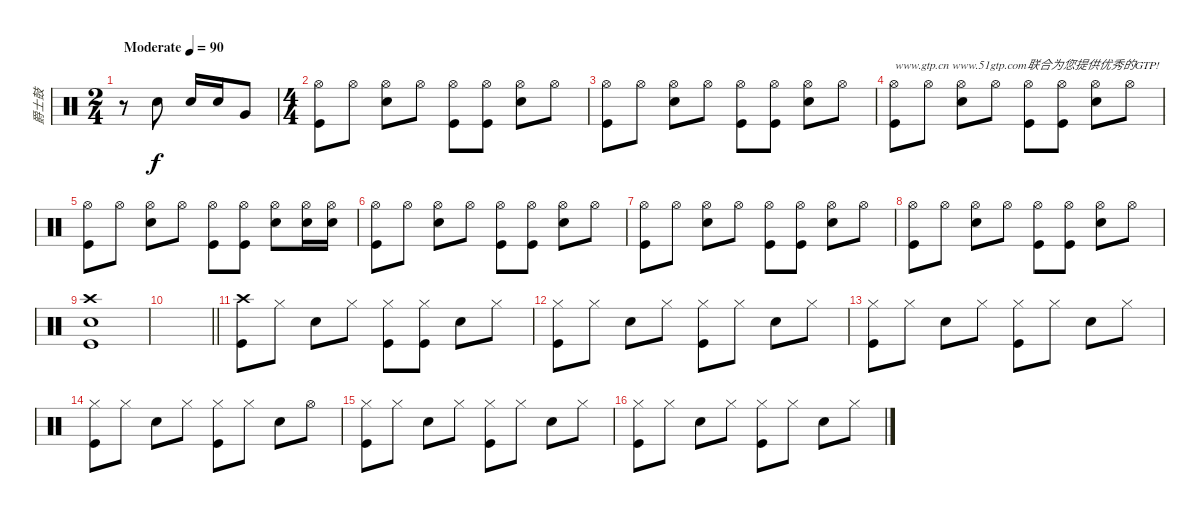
\track ("爵士鼓" "爵士鼓") {instrument percussion}
\staff {score}
\articulation defaults
\ts (2 4)
\tempo (90 "Moderate")
\clef neutral
\ks c
r.8{dy f} "Snare (hit) 2".8 "Snare (hit) 2".16 "Snare (hit) 2".16 "Very Low Tom (hit)".8 |
\ts (4 4)
("Hi-Hat (open)" "Kick (hit)").8 "Hi-Hat (open)".8 ("Hi-Hat (open)" "Snare (hit) 2").8 "Hi-Hat (open)".8 ("Hi-Hat (open)" "Kick (hit)").8 ("Hi-Hat (open)" "Kick (hit)").8 ("Hi-Hat (open)" "Snare (hit) 2").8 "Hi-Hat (open)".8 |
("Hi-Hat (open)" "Kick (hit)").8 "Hi-Hat (open)".8 ("Hi-Hat (open)" "Snare (hit) 2").8 "Hi-Hat (open)".8 ("Hi-Hat (open)" "Kick (hit)").8 ("Hi-Hat (open)" "Kick (hit)").8 ("Hi-Hat (open)" "Snare (hit) 2").8 "Hi-Hat (open)".8 |
("Hi-Hat (open)" "Kick (hit)").8{txt "www.gtp.cn www.51gtp.com联合为您提供优秀的GTP!"} "Hi-Hat (open)".8 ("Hi-Hat (open)" "Snare (hit) 2").8 "Hi-Hat (open)".8 ("Hi-Hat (open)" "Kick (hit)").8 ("Hi-Hat (open)" "Kick (hit)").8 ("Hi-Hat (open)" "Snare (hit) 2").8 "Hi-Hat (open)".8 |
("Hi-Hat (open)" "Kick (hit)").8 "Hi-Hat (open)".8 ("Hi-Hat (open)" "Snare (hit) 2").8 "Hi-Hat (open)".8 ("Hi-Hat (open)" "Kick (hit)").8 ("Hi-Hat (open)" "Kick (hit)").8 ("Hi-Hat (open)" "Snare (hit) 2").8 ("Hi-Hat (open)" "Snare (hit) 2").16 ("Hi-Hat (open)" "Snare (hit) 2").16 |
("Hi-Hat (open)" "Kick (hit)").8 "Hi-Hat (open)".8 ("Hi-Hat (open)" "Snare (hit) 2").8 "Hi-Hat (open)".8 ("Hi-Hat (open)" "Kick (hit)").8 ("Hi-Hat (open)" "Kick (hit)").8 ("Hi-Hat (open)" "Snare (hit) 2").8 "Hi-Hat (open)".8 |
("Hi-Hat (open)" "Kick (hit)").8 "Hi-Hat (open)".8 ("Hi-Hat (open)" "Snare (hit) 2").8 "Hi-Hat (open)".8 ("Hi-Hat (open)" "Kick (hit)").8 ("Hi-Hat (open)" "Kick (hit)").8 ("Hi-Hat (open)" "Snare (hit) 2").8 "Hi-Hat (open)".8 |
("Hi-Hat (open)" "Kick (hit)").8 "Hi-Hat (open)".8 ("Hi-Hat (open)" "Snare (hit) 2").8 "Hi-Hat (open)".8 ("Hi-Hat (open)" "Kick (hit)").8 ("Hi-Hat (open)" "Kick (hit)").8 ("Hi-Hat (open)" "Snare (hit) 2").8 "Hi-Hat (open)".8 |
("Crash high (hit)" "Snare (hit) 2" "Kick (hit)").1 |
\barLineRight lightlight
|
("Crash high (hit)" "Kick (hit)").8 "Hi-Hat (closed)".8 "Snare (hit) 2".8 "Hi-Hat (closed)".8 ("Hi-Hat (closed)" "Kick (hit)").8 ("Hi-Hat (closed)" "Kick (hit)").8 "Snare (hit) 2".8 "Hi-Hat (closed)".8 |
("Hi-Hat (closed)" "Kick (hit)").8 "Hi-Hat (closed)".8 "Snare (hit) 2".8 "Hi-Hat (closed)".8 ("Hi-Hat (closed)" "Kick (hit)").8 "Hi-Hat (closed)".8 "Snare (hit) 2".8 "Hi-Hat (closed)".8 |
("Hi-Hat (closed)" "Kick (hit)").8 "Hi-Hat (closed)".8 "Snare (hit) 2".8 "Hi-Hat (closed)".8 ("Hi-Hat (closed)" "Kick (hit)").8 "Hi-Hat (closed)".8 "Snare (hit) 2".8 "Hi-Hat (closed)".8 |
("Hi-Hat (closed)" "Kick (hit)").8 "Hi-Hat (closed)".8 "Snare (hit) 2".8 "Hi-Hat (closed)".8 ("Hi-Hat (closed)" "Kick (hit)").8 "Hi-Hat (closed)".8 "Snare (hit) 2".8 "Hi-Hat (open)".8 |
("Hi-Hat (closed)" "Kick (hit)").8 "Hi-Hat (closed)".8 "Snare (hit) 2".8 "Hi-Hat (closed)".8 ("Hi-Hat (closed)" "Kick (hit)").8 "Hi-Hat (closed)".8 "Snare (hit) 2".8 "Hi-Hat (closed)".8 |
("Hi-Hat (closed)" "Kick (hit)").8 "Hi-Hat (closed)".8 "Snare (hit) 2".8 "Hi-Hat (closed)".8 ("Hi-Hat (closed)" "Kick (hit)").8 "Hi-Hat (closed)".8 "Snare (hit) 2".8 "Hi-Hat (closed)".8
